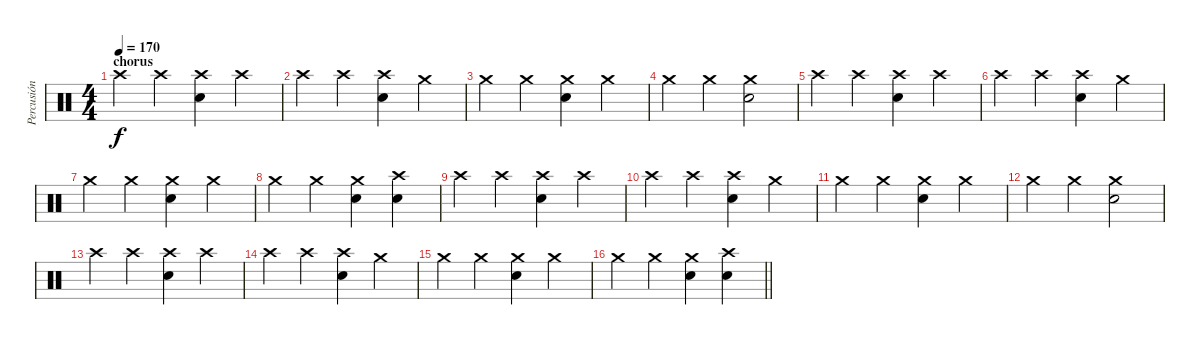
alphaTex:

\track ("Percusión" "Percusión") {instrument percussion}
\staff {score}
\articulation defaults
\ts (4 4)
\section ("" "chorus")
\tempo 170
\clef neutral
\ks c "Crash high (hit)".4{dy f} "Crash high (hit)".4
("Crash high (hit)" "Electric Snare (hit)").4 "Crash high (hit)".4 |
"Crash high (hit)".4 "Crash high (hit)".4 ("Electric Snare (hit)" "Crash high (hit)").4 "Crash medium (hit)".4 |
"Crash medium (hit)".4 "Crash medium (hit)".4 ("Crash medium (hit)" "Electric Snare (hit)").4 "Crash medium (hit)".4 |
"Crash medium (hit)".4 "Crash medium (hit)".4 ("Crash medium (hit)" "Electric Snare (hit)").2 |
"Crash high (hit)".4 "Crash high (hit)".4 ("Crash high (hit)" "Electric Snare (hit)").4 "Crash high (hit)".4 |
"Crash high (hit)".4 "Crash high (hit)".4 ("Electric Snare (hit)" "Crash high (hit)").4 "Crash medium (hit)".4 |
"Crash medium (hit)".4 "Crash medium (hit)".4 ("Crash medium (hit)" "Electric Snare (hit)").4 "Crash medium (hit)".4 |
"Crash medium (hit)".4 "Crash medium (hit)".4 ("Crash medium (hit)" "Electric Snare (hit)").4 ("Crash high (hit)" "Electric Snare (hit)").4 |
"Crash high (hit)".4 "Crash high (hit)".4 ("Crash high (hit)" "Electric Snare (hit)").4 "Crash high (hit)".4 |
"Crash high (hit)".4 "Crash high (hit)".4 ("Electric Snare (hit)" "Crash high (hit)").4 "Crash medium (hit)".4 |
"Crash medium (hit)".4 "Crash medium (hit)".4 ("Crash medium (hit)" "Electric Snare (hit)").4 "Crash medium (hit)".4 |
"Crash medium (hit)".4 "Crash medium (hit)".4 ("Crash medium (hit)" "Electric Snare (hit)").2 |
"Crash high (hit)".4 "Crash high (hit)".4 ("Crash high (hit)" "Electric Snare (hit)").4 "Crash high (hit)".4 |
"Crash high (hit)".4 "Crash high (hit)".4 ("Electric Snare (hit)" "Crash high (hit)").4 "Crash medium (hit)".4 |
"Crash medium (hit)".4 "Crash medium (hit)".4 ("Crash medium (hit)" "Electric Snare (hit)").4 "Crash medium (hit)".4 |
\barLineRight lightlight "Crash medium (hit)".4 "Crash medium (hit)".4
("Crash medium (hit)" "Electric Snare (hit)").4 ("Crash high (hit)" "Electric Snare (hit)").4
